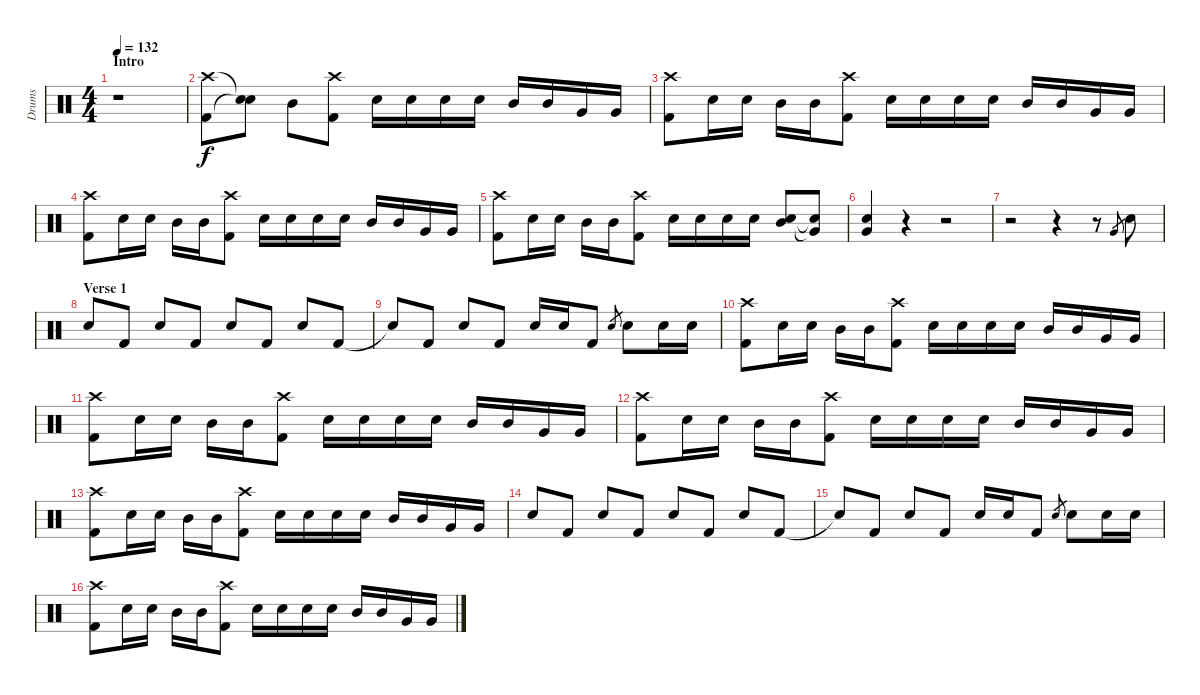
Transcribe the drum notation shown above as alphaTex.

\track ("Drums" "Drums") {instrument percussion}
\staff {score}
\articulation defaults
\ts (4 4)
\section ("" "Intro")
\tempo 132
\clef neutral
\ks c
r.1{dy f} |
("Crash high (hit)" "Kick (hit) 2").8 ("Snare (hit)"{t} "Snare (hit)"{t}).8 "Mid Tom (hit)".8 ("Crash high (hit)" "Kick (hit) 2").8 "Electric Snare (hit)".16 "Electric Snare (hit)".16 "Electric Snare (hit)".16 "Electric Snare (hit)".16 "Mid Tom (hit)".16 "Mid Tom (hit)".16 "Very Low Tom (hit)".16 "Very Low Tom (hit)".16 |
("Crash high (hit)" "Kick (hit) 2").8 "Electric Snare (hit)".16 "Electric Snare (hit)".16 "Mid Tom (hit)".16 "Mid Tom (hit)".16 ("Crash high (hit)" "Kick (hit) 2").8 "Electric Snare (hit)".16 "Electric Snare (hit)".16 "Electric Snare (hit)".16 "Electric Snare (hit)".16 "Mid Tom (hit)".16 "Mid Tom (hit)".16 "Very Low Tom (hit)".16 "Very Low Tom (hit)".16 |
("Crash high (hit)" "Kick (hit) 2").8 "Electric Snare (hit)".16 "Electric Snare (hit)".16 "Mid Tom (hit)".16 "Mid Tom (hit)".16 ("Crash high (hit)" "Kick (hit) 2").8 "Electric Snare (hit)".16 "Electric Snare (hit)".16 "Electric Snare (hit)".16 "Electric Snare (hit)".16 "Mid Tom (hit)".16 "Mid Tom (hit)".16 "Very Low Tom (hit)".16 "Very Low Tom (hit)".16 |
("Crash high (hit)" "Kick (hit) 2").8 "Electric Snare (hit)".16 "Electric Snare (hit)".16 "Mid Tom (hit)".16 "Mid Tom (hit)".16 ("Crash high (hit)" "Kick (hit) 2").8 "Electric Snare (hit)".16 "Electric Snare (hit)".16 "Electric Snare (hit)".16 "Electric Snare (hit)".16 ("Mid Tom (hit)" "Electric Snare (hit)").8 ("Very Low Tom (hit)"{t} "Electric Snare (hit)"{t}).8 |
("Very Low Tom (hit)" "Electric Snare (hit)").4 r.4 r.2 |
r.2 r.4 r.8 "Very Low Tom (hit)".8{gr} "Electric Snare (hit)".8 |
\section ("" "Verse 1")
"Electric Snare (hit)".8 "Kick (hit) 2".8 "Electric Snare (hit)".8 "Kick (hit) 2".8 "Electric Snare (hit)".8 "Kick (hit) 2".8 "Electric Snare (hit)".8 "Kick (hit) 2".8 |
"Snare (hit)"{t}.8 "Kick (hit) 2".8 "Electric Snare (hit)".8 "Kick (hit) 2".8 "Electric Snare (hit)".16 "Electric Snare (hit)".16 "Kick (hit) 2".8 "Electric Snare (hit)".8{gr} "Electric Snare (hit)".8 "Electric Snare (hit)".16 "Electric Snare (hit)".16 |
("Crash high (hit)" "Kick (hit) 2").8 "Electric Snare (hit)".16 "Electric Snare (hit)".16 "Mid Tom (hit)".16 "Mid Tom (hit)".16 ("Crash high (hit)" "Kick (hit) 2").8 "Electric Snare (hit)".16 "Electric Snare (hit)".16 "Electric Snare (hit)".16 "Electric Snare (hit)".16 "Mid Tom (hit)".16 "Mid Tom (hit)".16 "Very Low Tom (hit)".16 "Very Low Tom (hit)".16 |
("Crash high (hit)" "Kick (hit) 2").8 "Electric Snare (hit)".16 "Electric Snare (hit)".16 "Mid Tom (hit)".16 "Mid Tom (hit)".16 ("Crash high (hit)" "Kick (hit) 2").8 "Electric Snare (hit)".16 "Electric Snare (hit)".16 "Electric Snare (hit)".16 "Electric Snare (hit)".16 "Mid Tom (hit)".16 "Mid Tom (hit)".16 "Very Low Tom (hit)".16 "Very Low Tom (hit)".16 |
("Crash high (hit)" "Kick (hit) 2").8 "Electric Snare (hit)".16 "Electric Snare (hit)".16 "Mid Tom (hit)".16 "Mid Tom (hit)".16 ("Crash high (hit)" "Kick (hit) 2").8 "Electric Snare (hit)".16 "Electric Snare (hit)".16 "Electric Snare (hit)".16 "Electric Snare (hit)".16 "Mid Tom (hit)".16 "Mid Tom (hit)".16 "Very Low Tom (hit)".16 "Very Low Tom (hit)".16 |
("Crash high (hit)" "Kick (hit) 2").8 "Electric Snare (hit)".16 "Electric Snare (hit)".16 "Mid Tom (hit)".16 "Mid Tom (hit)".16 ("Crash high (hit)" "Kick (hit) 2").8 "Electric Snare (hit)".16 "Electric Snare (hit)".16 "Electric Snare (hit)".16 "Electric Snare (hit)".16 "Mid Tom (hit)".16 "Mid Tom (hit)".16 "Very Low Tom (hit)".16 "Very Low Tom (hit)".16 |
"Electric Snare (hit)".8 "Kick (hit) 2".8 "Electric Snare (hit)".8 "Kick (hit) 2".8 "Electric Snare (hit)".8 "Kick (hit) 2".8 "Electric Snare (hit)".8 "Kick (hit) 2".8 |
"Snare (hit)"{t}.8 "Kick (hit) 2".8 "Electric Snare (hit)".8 "Kick (hit) 2".8 "Electric Snare (hit)".16 "Electric Snare (hit)".16 "Kick (hit) 2".8 "Electric Snare (hit)".8{gr} "Electric Snare (hit)".8 "Electric Snare (hit)".16 "Electric Snare (hit)".16 |
("Crash high (hit)" "Kick (hit) 2").8 "Electric Snare (hit)".16 "Electric Snare (hit)".16 "Mid Tom (hit)".16 "Mid Tom (hit)".16 ("Crash high (hit)" "Kick (hit) 2").8 "Electric Snare (hit)".16 "Electric Snare (hit)".16 "Electric Snare (hit)".16 "Electric Snare (hit)".16 "Mid Tom (hit)".16 "Mid Tom (hit)".16 "Very Low Tom (hit)".16 "Very Low Tom (hit)".16
